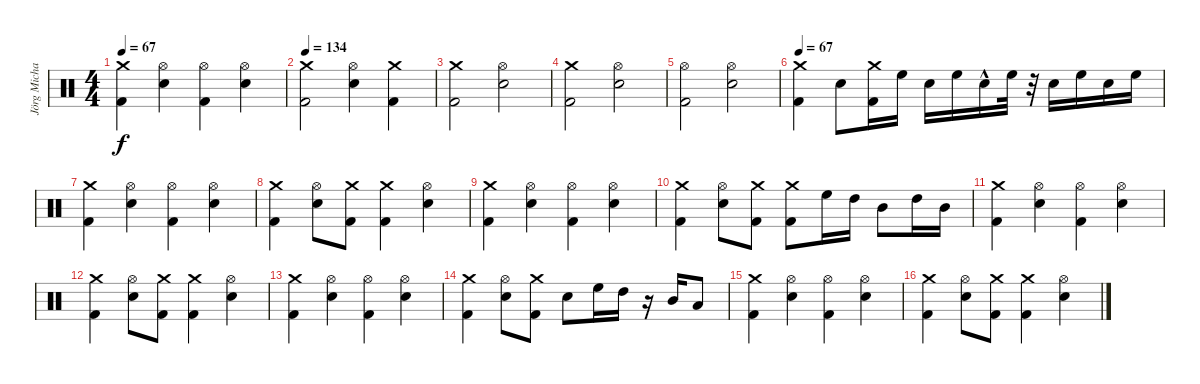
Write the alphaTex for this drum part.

\track ("Jörg Michael" "Jörg Micha") {instrument percussion}
\staff {score}
\articulation defaults
\ts (4 4)
\tempo 67
\clef neutral
\ks c
("Kick (hit) 2" "Crash medium (hit)").4{dy f} ("Snare (hit) 2" "Hi-Hat (open)").4 ("Kick (hit) 2" "Hi-Hat (open)").4 ("Snare (hit) 2" "Hi-Hat (open)").4 |
\tempo 134
("Kick (hit) 2" "Crash medium (hit)").2 ("Hi-Hat (open)" "Snare (hit) 2").4 ("Kick (hit) 2" "Crash medium (hit)").4 |
("Crash medium (hit)" "Kick (hit) 2").2 ("Snare (hit) 2" "Hi-Hat (open)").2 |
("Kick (hit) 2" "Crash medium (hit)").2 ("Snare (hit) 2" "Hi-Hat (open)").2 |
("Kick (hit) 2" "Hi-Hat (open)").2 ("Snare (hit) 2" "Hi-Hat (open)").2 |
\tempo 67
("Kick (hit) 2" "Crash medium (hit)").4 "Snare (hit) 2".8 ("Kick (hit) 2" "Crash medium (hit)").16 "High Floor Tom (hit)".16 "Snare (hit) 2".16 "High Floor Tom (hit)".16 "Snare (hit) 2"{hac}.16 "High Floor Tom (hit)".32 r.32 "Snare (hit) 2".16 "High Floor Tom (hit)".16 "Snare (hit) 2".16 "High Floor Tom (hit)".16 |
("Kick (hit) 2" "Crash medium (hit)").4 ("Snare (hit) 2" "Hi-Hat (open)").4 ("Kick (hit) 2" "Hi-Hat (open)").4 ("Snare (hit) 2" "Hi-Hat (open)").4 |
("Kick (hit) 2" "Crash medium (hit)").4 ("Snare (hit) 2" "Hi-Hat (open)").8 ("Kick (hit) 2" "Crash medium (hit)").8 ("Kick (hit) 2" "Crash medium (hit)").4 ("Snare (hit) 2" "Hi-Hat (open)").4 |
("Kick (hit) 2" "Crash medium (hit)").4 ("Snare (hit) 2" "Hi-Hat (open)").4 ("Kick (hit) 2" "Hi-Hat (open)").4 ("Snare (hit) 2" "Hi-Hat (open)").4 |
("Kick (hit) 2" "Crash medium (hit)").4 ("Snare (hit) 2" "Hi-Hat (open)").8 ("Kick (hit) 2" "Crash medium (hit)").8 ("Kick (hit) 2" "Crash medium (hit)").8 "High Floor Tom (hit)".16 "High Tom (hit)".16 "Mid Tom (hit)".8 "High Tom (hit)".16 "Mid Tom (hit)".16 |
("Kick (hit) 2" "Crash medium (hit)").4 ("Snare (hit) 2" "Hi-Hat (open)").4 ("Kick (hit) 2" "Hi-Hat (open)").4 ("Snare (hit) 2" "Hi-Hat (open)").4 |
("Kick (hit) 2" "Crash medium (hit)").4 ("Snare (hit) 2" "Hi-Hat (open)").8 ("Kick (hit) 2" "Crash medium (hit)").8 ("Kick (hit) 2" "Crash medium (hit)").4 ("Snare (hit) 2" "Hi-Hat (open)").4 |
("Kick (hit) 2" "Crash medium (hit)").4 ("Snare (hit) 2" "Hi-Hat (open)").4 ("Kick (hit) 2" "Hi-Hat (open)").4 ("Snare (hit) 2" "Hi-Hat (open)").4 |
("Kick (hit) 2" "Crash medium (hit)").4 ("Snare (hit) 2" "Hi-Hat (open)").8 ("Kick (hit) 2" "Crash medium (hit)").8 "Snare (hit) 2".8 "High Floor Tom (hit)".16 "High Tom (hit)".16 r.16 "Mid Tom (hit)".16 "Low Tom (hit)".8 |
("Kick (hit) 2" "Crash medium (hit)").4 ("Snare (hit) 2" "Hi-Hat (open)").4 ("Kick (hit) 2" "Hi-Hat (open)").4 ("Snare (hit) 2" "Hi-Hat (open)").4 |
("Kick (hit) 2" "Crash medium (hit)").4 ("Snare (hit) 2" "Hi-Hat (open)").8 ("Kick (hit) 2" "Crash medium (hit)").8 ("Kick (hit) 2" "Crash medium (hit)").4 ("Snare (hit) 2" "Hi-Hat (open)").4
